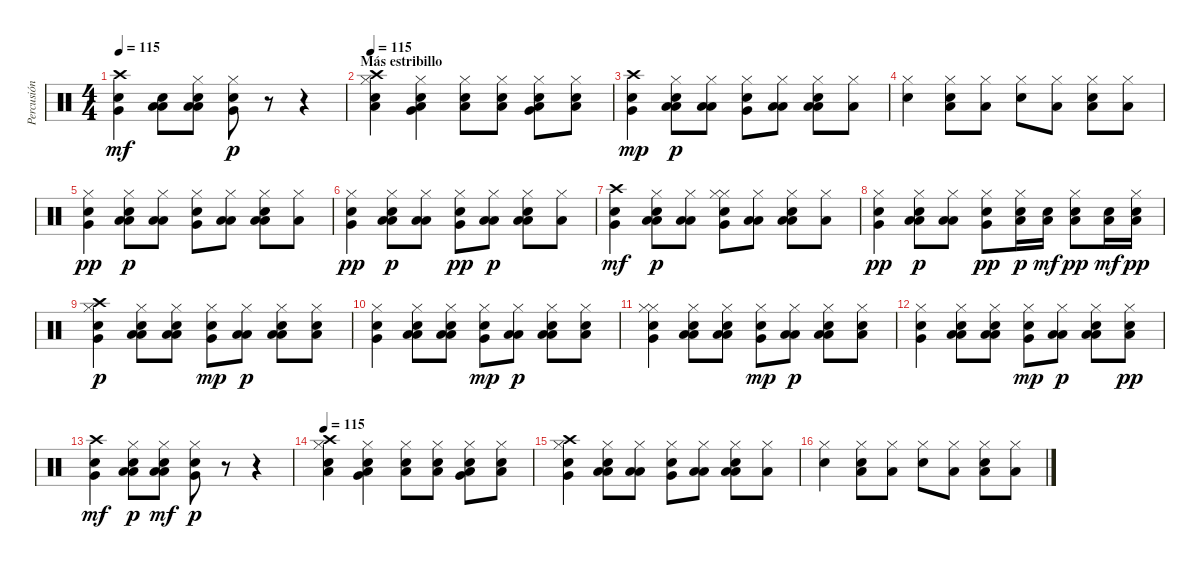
\track ("Percusión" "Percusión") {instrument percussion}
\staff {score}
\articulation defaults
\ts (4 4)
\tempo 115
\clef neutral
\ks c
("Snare (hit) 2" "Very Low Tom (hit)" "Crash high (hit)").4{dy mf} ("Low Floor Tom (hit)" "Low Floor Tom (hit)" "Snare (hit) 2").8 ("Low Floor Tom (hit)" "Low Floor Tom (hit)" "Hi-Hat (closed)" "Snare (hit) 2").8 ("Snare (hit) 2" "Very Low Tom (hit)" "Hi-Hat (closed)").8{dy p} r.8 r.4 |
\section ("" "Más estribillo")
\tempo 115
("Snare (hit) 2" "Low Floor Tom (hit)" "Crash high (hit)" "Hi-Hat (closed)").4 ("Snare (hit) 2" "Low Floor Tom (hit)" "Very Low Tom (hit)" "Hi-Hat (closed)").4 ("Snare (hit) 2" "Low Floor Tom (hit)" "Hi-Hat (closed)").8 ("Snare (hit) 2" "Low Floor Tom (hit)" "Hi-Hat (closed)").8 ("Snare (hit) 2" "Low Floor Tom (hit)" "Very Low Tom (hit)" "Hi-Hat (closed)").8 ("Snare (hit) 2" "Low Floor Tom (hit)" "Hi-Hat (closed)").8 |
("Snare (hit) 2" "Very Low Tom (hit)" "Crash high (hit)").4{dy mp} ("Low Floor Tom (hit)" "Low Floor Tom (hit)" "Snare (hit) 2" "Hi-Hat (closed)").8{dy p} ("Low Floor Tom (hit)" "Low Floor Tom (hit)" "Hi-Hat (closed)").8 ("Snare (hit) 2" "Very Low Tom (hit)" "Hi-Hat (closed)").8 ("Low Floor Tom (hit)" "Low Floor Tom (hit)" "Hi-Hat (closed)").8 ("Low Floor Tom (hit)" "Low Floor Tom (hit)" "Snare (hit) 2" "Hi-Hat (closed)").8 ("Low Floor Tom (hit)" "Hi-Hat (closed)").8 |
("Snare (hit) 2" "Hi-Hat (closed)").4 ("Low Floor Tom (hit)" "Snare (hit) 2" "Hi-Hat (closed)").8 ("Low Floor Tom (hit)" "Hi-Hat (closed)").8 ("Snare (hit) 2" "Hi-Hat (closed)").8 ("Low Floor Tom (hit)" "Hi-Hat (closed)").8 ("Low Floor Tom (hit)" "Snare (hit) 2" "Hi-Hat (closed)").8 ("Low Floor Tom (hit)" "Hi-Hat (closed)").8 |
("Snare (hit) 2" "Very Low Tom (hit)" "Hi-Hat (closed)").4{dy pp} ("Low Floor Tom (hit)" "Low Floor Tom (hit)" "Snare (hit) 2" "Hi-Hat (closed)").8{dy p} ("Low Floor Tom (hit)" "Low Floor Tom (hit)" "Hi-Hat (closed)").8 ("Snare (hit) 2" "Very Low Tom (hit)" "Hi-Hat (closed)").8 ("Low Floor Tom (hit)" "Low Floor Tom (hit)" "Hi-Hat (closed)").8 ("Low Floor Tom (hit)" "Low Floor Tom (hit)" "Snare (hit) 2" "Hi-Hat (closed)").8 ("Low Floor Tom (hit)" "Hi-Hat (closed)").8 |
("Snare (hit) 2" "Very Low Tom (hit)" "Hi-Hat (closed)").4{dy pp} ("Low Floor Tom (hit)" "Low Floor Tom (hit)" "Snare (hit) 2" "Hi-Hat (closed)").8{dy p} ("Low Floor Tom (hit)" "Low Floor Tom (hit)" "Hi-Hat (closed)").8 ("Snare (hit) 2" "Very Low Tom (hit)" "Hi-Hat (closed)").8{dy pp} ("Low Floor Tom (hit)" "Low Floor Tom (hit)" "Hi-Hat (closed)").8{dy p} ("Low Floor Tom (hit)" "Low Floor Tom (hit)" "Snare (hit) 2" "Hi-Hat (closed)").8 ("Low Floor Tom (hit)" "Hi-Hat (closed)").8 |
("Snare (hit) 2" "Very Low Tom (hit)" "Crash high (hit)").4{dy mf} ("Low Floor Tom (hit)" "Low Floor Tom (hit)" "Snare (hit) 2" "Hi-Hat (closed)").8{dy p} ("Low Floor Tom (hit)" "Low Floor Tom (hit)" "Hi-Hat (closed)").8 ("Snare (hit) 2" "Very Low Tom (hit)" "Hi-Hat (closed)" "Hi-Hat (closed)").8 ("Low Floor Tom (hit)" "Low Floor Tom (hit)" "Hi-Hat (closed)").8 ("Low Floor Tom (hit)" "Low Floor Tom (hit)" "Snare (hit) 2" "Hi-Hat (closed)").8 ("Low Floor Tom (hit)" "Hi-Hat (closed)").8 |
("Snare (hit) 2" "Very Low Tom (hit)" "Hi-Hat (closed)").4{dy pp} ("Low Floor Tom (hit)" "Low Floor Tom (hit)" "Snare (hit) 2" "Hi-Hat (closed)").8{dy p} ("Low Floor Tom (hit)" "Low Floor Tom (hit)" "Hi-Hat (closed)").8 ("Snare (hit) 2" "Very Low Tom (hit)" "Hi-Hat (closed)").8{dy pp} ("Snare (hit) 2" "Low Floor Tom (hit)" "Hi-Hat (closed)").16{dy p} ("Snare (hit) 2" "Low Floor Tom (hit)").16{dy mf} ("Snare (hit) 2" "Low Floor Tom (hit)" "Hi-Hat (closed)").8{dy pp} ("Snare (hit) 2" "Low Floor Tom (hit)").16{dy mf} ("Snare (hit) 2" "Low Floor Tom (hit)" "Hi-Hat (closed)").16{dy pp} |
("Snare (hit) 2" "Very Low Tom (hit)" "Crash high (hit)" "Hi-Hat (closed)").4{dy p} ("Low Floor Tom (hit)" "Low Floor Tom (hit)" "Snare (hit) 2" "Hi-Hat (closed)").8 ("Low Floor Tom (hit)" "Low Floor Tom (hit)" "Snare (hit) 2" "Hi-Hat (closed)").8 ("Snare (hit) 2" "Very Low Tom (hit)" "Hi-Hat (closed)").8{dy mp} ("Low Floor Tom (hit)" "Low Floor Tom (hit)" "Hi-Hat (closed)").8{dy p} ("Low Floor Tom (hit)" "Low Floor Tom (hit)" "Snare (hit) 2" "Hi-Hat (closed)").8 ("Low Floor Tom (hit)" "Snare (hit) 2" "Hi-Hat (closed)").8 |
("Snare (hit) 2" "Very Low Tom (hit)" "Hi-Hat (closed)").4 ("Low Floor Tom (hit)" "Low Floor Tom (hit)" "Snare (hit) 2" "Hi-Hat (closed)").8 ("Low Floor Tom (hit)" "Low Floor Tom (hit)" "Snare (hit) 2" "Hi-Hat (closed)").8 ("Snare (hit) 2" "Very Low Tom (hit)" "Hi-Hat (closed)").8{dy mp} ("Low Floor Tom (hit)" "Low Floor Tom (hit)" "Hi-Hat (closed)").8{dy p} ("Low Floor Tom (hit)" "Low Floor Tom (hit)" "Snare (hit) 2" "Hi-Hat (closed)").8 ("Low Floor Tom (hit)" "Snare (hit) 2" "Hi-Hat (closed)").8 |
("Snare (hit) 2" "Very Low Tom (hit)" "Hi-Hat (closed)" "Hi-Hat (closed)").4 ("Low Floor Tom (hit)" "Low Floor Tom (hit)" "Snare (hit) 2" "Hi-Hat (closed)").8 ("Low Floor Tom (hit)" "Low Floor Tom (hit)" "Hi-Hat (closed)" "Snare (hit) 2").8 ("Snare (hit) 2" "Very Low Tom (hit)" "Hi-Hat (closed)").8{dy mp} ("Low Floor Tom (hit)" "Low Floor Tom (hit)" "Hi-Hat (closed)").8{dy p} ("Low Floor Tom (hit)" "Low Floor Tom (hit)" "Snare (hit) 2" "Hi-Hat (closed)").8 ("Low Floor Tom (hit)" "Snare (hit) 2" "Hi-Hat (closed)").8 |
("Snare (hit) 2" "Very Low Tom (hit)" "Hi-Hat (closed)").4 ("Low Floor Tom (hit)" "Low Floor Tom (hit)" "Snare (hit) 2" "Hi-Hat (closed)").8 ("Low Floor Tom (hit)" "Low Floor Tom (hit)" "Hi-Hat (closed)" "Snare (hit) 2").8 ("Snare (hit) 2" "Very Low Tom (hit)" "Hi-Hat (closed)").8{dy mp} ("Low Floor Tom (hit)" "Low Floor Tom (hit)" "Hi-Hat (closed)").8{dy p} ("Low Floor Tom (hit)" "Low Floor Tom (hit)" "Snare (hit) 2" "Hi-Hat (closed)").8 ("Low Floor Tom (hit)" "Snare (hit) 2" "Hi-Hat (closed)").8{dy pp} |
("Snare (hit) 2" "Very Low Tom (hit)" "Crash high (hit)").4{dy mf} ("Low Floor Tom (hit)" "Low Floor Tom (hit)" "Snare (hit) 2" "Hi-Hat (closed)").8{dy p} ("Low Floor Tom (hit)" "Low Floor Tom (hit)" "Hi-Hat (closed)" "Snare (hit) 2").8{dy mf} ("Snare (hit) 2" "Very Low Tom (hit)" "Hi-Hat (closed)").8{dy p} r.8 r.4 |
\tempo 115
("Snare (hit) 2" "Low Floor Tom (hit)" "Crash high (hit)" "Hi-Hat (closed)").4 ("Snare (hit) 2" "Low Floor Tom (hit)" "Very Low Tom (hit)" "Hi-Hat (closed)").4 ("Snare (hit) 2" "Low Floor Tom (hit)" "Hi-Hat (closed)").8 ("Snare (hit) 2" "Low Floor Tom (hit)" "Hi-Hat (closed)").8 ("Snare (hit) 2" "Low Floor Tom (hit)" "Very Low Tom (hit)" "Hi-Hat (closed)").8 ("Snare (hit) 2" "Low Floor Tom (hit)" "Hi-Hat (closed)").8 |
("Snare (hit) 2" "Very Low Tom (hit)" "Crash high (hit)" "Hi-Hat (closed)").4 ("Low Floor Tom (hit)" "Low Floor Tom (hit)" "Snare (hit) 2" "Hi-Hat (closed)").8 ("Low Floor Tom (hit)" "Low Floor Tom (hit)" "Hi-Hat (closed)").8 ("Snare (hit) 2" "Very Low Tom (hit)" "Hi-Hat (closed)").8 ("Low Floor Tom (hit)" "Low Floor Tom (hit)" "Hi-Hat (closed)").8 ("Low Floor Tom (hit)" "Low Floor Tom (hit)" "Snare (hit) 2" "Hi-Hat (closed)").8 ("Low Floor Tom (hit)" "Hi-Hat (closed)").8 |
("Snare (hit) 2" "Hi-Hat (closed)").4 ("Low Floor Tom (hit)" "Snare (hit) 2" "Hi-Hat (closed)").8 ("Low Floor Tom (hit)" "Hi-Hat (closed)").8 ("Snare (hit) 2" "Hi-Hat (closed)").8 ("Low Floor Tom (hit)" "Hi-Hat (closed)").8 ("Low Floor Tom (hit)" "Snare (hit) 2" "Hi-Hat (closed)").8 ("Low Floor Tom (hit)" "Hi-Hat (closed)").8
